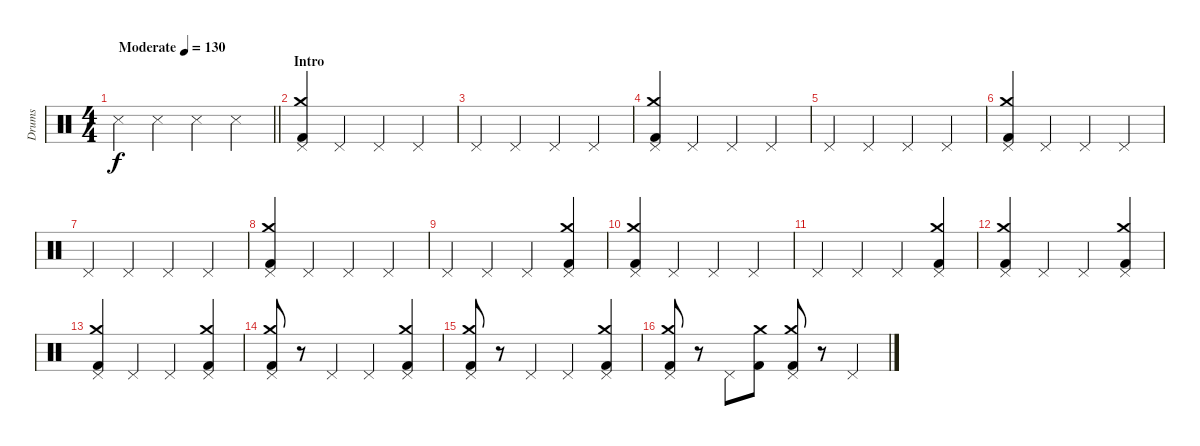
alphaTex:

\track ("Drums" "Drums") {instrument percussion}
\staff {score}
\articulation defaults
\ts (4 4)
\tempo (130 "Moderate")
\clef neutral
\barLineRight lightlight
\ks c "Metronome (hit)".4{dy f} "Metronome (hit)".4 "Metronome (hit)".4 "Metronome (hit)".4
|
\section ("" "Intro")
("Pedal Hi-Hat (hit)" "Crash medium (hit)" "Kick (hit) 2").4 "Pedal Hi-Hat (hit)".4 "Pedal Hi-Hat (hit)".4 "Pedal Hi-Hat (hit)".4 |
"Pedal Hi-Hat (hit)".4 "Pedal Hi-Hat (hit)".4 "Pedal Hi-Hat (hit)".4 "Pedal Hi-Hat (hit)".4 |
("Pedal Hi-Hat (hit)" "Crash medium (hit)" "Kick (hit) 2").4 "Pedal Hi-Hat (hit)".4 "Pedal Hi-Hat (hit)".4 "Pedal Hi-Hat (hit)".4 |
"Pedal Hi-Hat (hit)".4 "Pedal Hi-Hat (hit)".4 "Pedal Hi-Hat (hit)".4 "Pedal Hi-Hat (hit)".4 |
("Pedal Hi-Hat (hit)" "Crash medium (hit)" "Kick (hit) 2").4 "Pedal Hi-Hat (hit)".4 "Pedal Hi-Hat (hit)".4 "Pedal Hi-Hat (hit)".4 |
"Pedal Hi-Hat (hit)".4 "Pedal Hi-Hat (hit)".4 "Pedal Hi-Hat (hit)".4 "Pedal Hi-Hat (hit)".4 |
("Pedal Hi-Hat (hit)" "Crash medium (hit)" "Kick (hit) 2").4 "Pedal Hi-Hat (hit)".4 "Pedal Hi-Hat (hit)".4 "Pedal Hi-Hat (hit)".4 |
"Pedal Hi-Hat (hit)".4 "Pedal Hi-Hat (hit)".4 "Pedal Hi-Hat (hit)".4 ("Pedal Hi-Hat (hit)" "Crash medium (hit)" "Kick (hit) 2").4 |
("Pedal Hi-Hat (hit)" "Crash medium (hit)" "Kick (hit) 2").4 "Pedal Hi-Hat (hit)".4 "Pedal Hi-Hat (hit)".4 "Pedal Hi-Hat (hit)".4 |
"Pedal Hi-Hat (hit)".4 "Pedal Hi-Hat (hit)".4 "Pedal Hi-Hat (hit)".4 ("Pedal Hi-Hat (hit)" "Crash medium (hit)" "Kick (hit) 2").4 |
("Pedal Hi-Hat (hit)" "Crash medium (hit)" "Kick (hit) 2").4 "Pedal Hi-Hat (hit)".4 "Pedal Hi-Hat (hit)".4 ("Pedal Hi-Hat (hit)" "Crash medium (hit)" "Kick (hit) 2").4 |
("Pedal Hi-Hat (hit)" "Crash medium (hit)" "Kick (hit) 2").4 "Pedal Hi-Hat (hit)".4 "Pedal Hi-Hat (hit)".4 ("Pedal Hi-Hat (hit)" "Crash medium (hit)" "Kick (hit) 2").4 |
("Pedal Hi-Hat (hit)" "Crash medium (hit)" "Kick (hit) 2").8 r.8 "Pedal Hi-Hat (hit)".4 "Pedal Hi-Hat (hit)".4 ("Pedal Hi-Hat (hit)" "Crash medium (hit)" "Kick (hit) 2").4 |
("Pedal Hi-Hat (hit)" "Crash medium (hit)" "Kick (hit) 2").8 r.8 "Pedal Hi-Hat (hit)".4 "Pedal Hi-Hat (hit)".4 ("Pedal Hi-Hat (hit)" "Crash medium (hit)" "Kick (hit) 2").4 |
("Pedal Hi-Hat (hit)" "Crash medium (hit)" "Kick (hit) 2").8 r.8 "Pedal Hi-Hat (hit)".8 ("Crash medium (hit)" "Kick (hit) 2").8 ("Pedal Hi-Hat (hit)" "Crash medium (hit)" "Kick (hit) 2").8 r.8 "Pedal Hi-Hat (hit)".4
